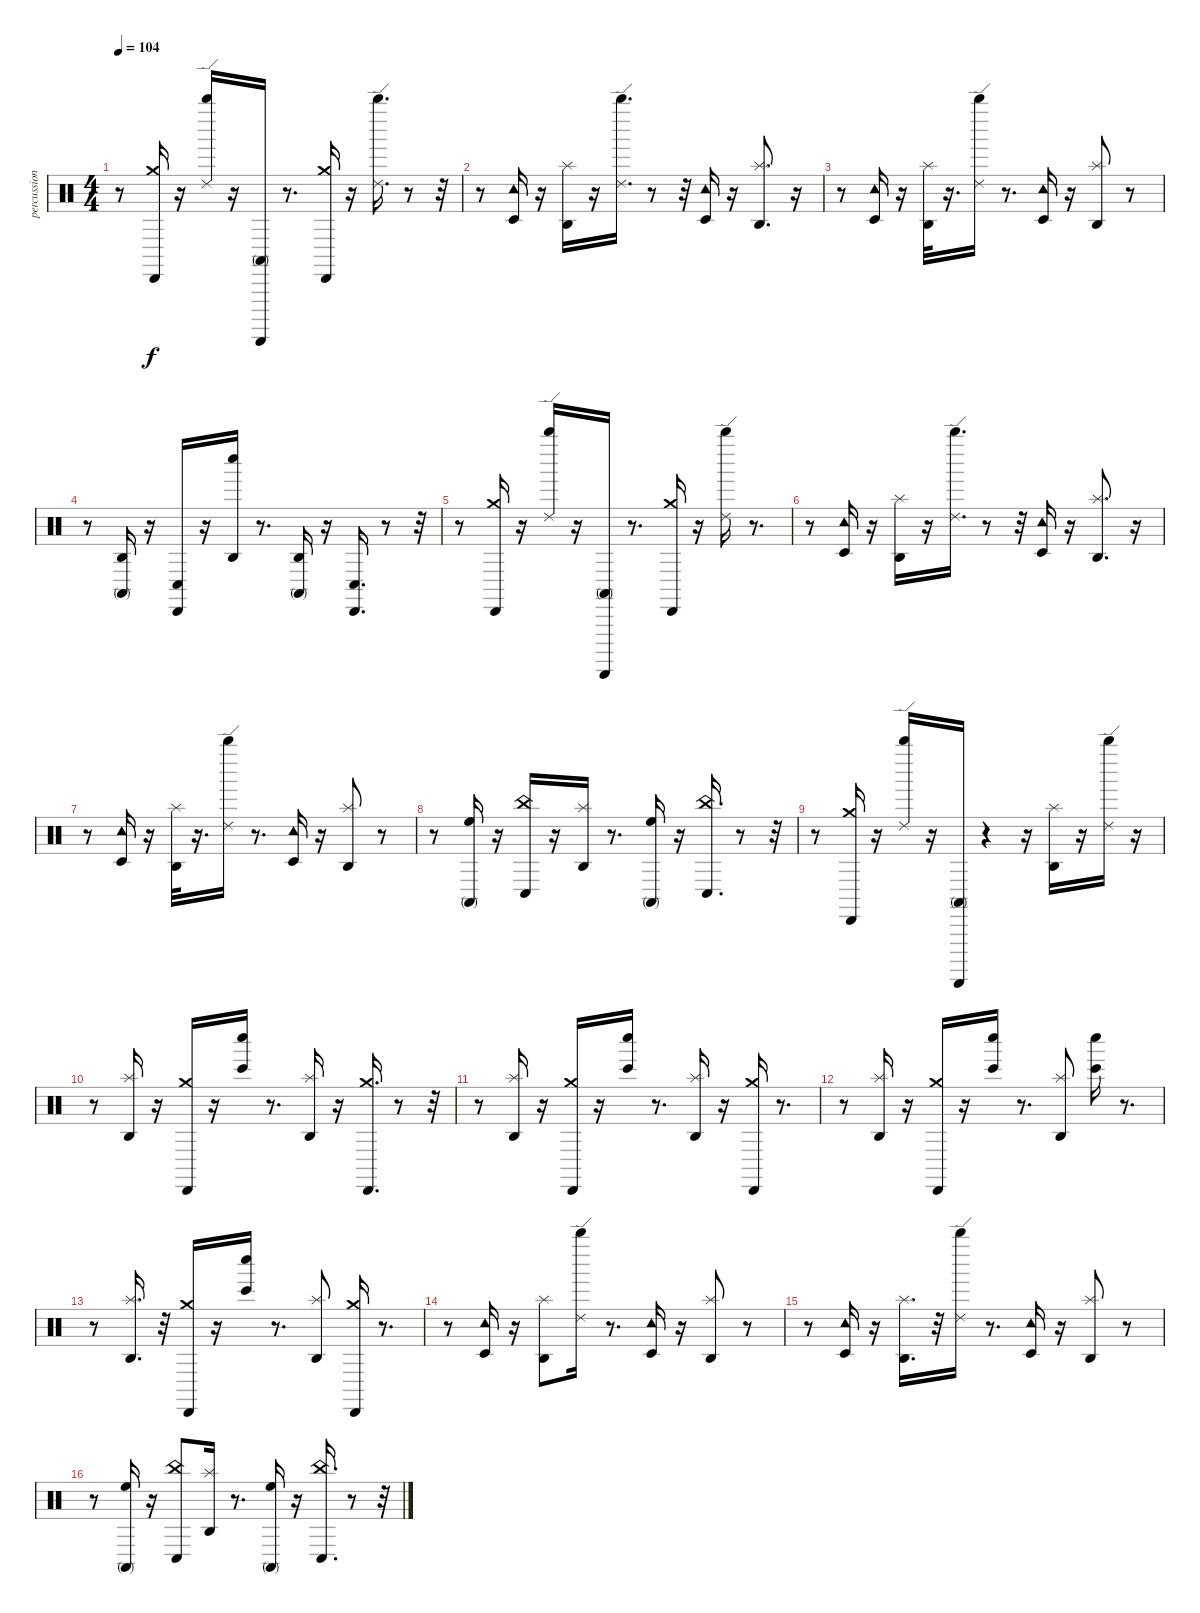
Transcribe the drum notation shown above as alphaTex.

\track ("percussion" "percussion") {instrument percussion}
\staff {score}
\articulation defaults
\ts (4 4)
\tempo 104
\clef neutral
\ks c
r.8{dy f} ("Cabasa (hit)" "Crash medium (hit)").16 r.16 ("Whistle high (hit)" "Ride (edge) 2").16 r.16 ("Guiro (scrap-return)" "Conga high (mute)").16 r.8{d} ("Crash medium (hit)" "Cabasa (hit)").16 r.16 ("Ride (edge) 2" "Whistle high (hit)").16{d} r.8 r.32 |
r.8 ("Timbale low (hit)" "Tambourine (hit)").16 r.16 ("Agogo high (hit)" "Splash (hit)").16 r.16 ("Whistle high (hit)" "Ride (edge) 2").16{d} r.8 r.32 ("Timbale low (hit)" "Tambourine (hit)").16 r.16 ("Agogo high (hit)" "Splash (hit)").8{d} r.16 |
r.8 ("Timbale low (hit)" "Tambourine (hit)").16 r.16 ("Agogo high (hit)" "Splash (hit)").32 r.16{d} ("Whistle high (hit)" "Ride (edge) 2").16 r.8{d} ("Timbale low (hit)" "Tambourine (hit)").16 r.16 ("Agogo high (hit)" "Splash (hit)").8 r.8 |
r.8 ("Conga high (mute)" "Agogo high (hit)").16 r.16 ("Conga low (hit)" "Cabasa (hit)").16 r.16 ("Agogo high (hit)" "Whistle low (hit)").16 r.8{d} ("Conga high (mute)" "Agogo high (hit)").16 r.16 ("Conga low (hit)" "Cabasa (hit)").16{d} r.8 r.32 |
r.8 ("Cabasa (hit)" "Crash medium (hit)").16 r.16 ("Whistle high (hit)" "Ride (edge) 2").16 r.16 ("Guiro (scrap-return)" "Conga high (mute)").16 r.8{d} ("Cabasa (hit)" "Crash medium (hit)").16 r.16 ("Whistle high (hit)" "Ride (edge) 2").16 r.8{d} |
r.8 ("Timbale low (hit)" "Tambourine (hit)").16 r.16 ("Agogo high (hit)" "Splash (hit)").16 r.16 ("Whistle high (hit)" "Ride (edge) 2").16{d} r.8 r.32 ("Timbale low (hit)" "Tambourine (hit)").16 r.16 ("Agogo high (hit)" "Splash (hit)").8{d} r.16 |
r.8 ("Timbale low (hit)" "Tambourine (hit)").16 r.16 ("Agogo high (hit)" "Splash (hit)").32 r.16{d} ("Whistle high (hit)" "Ride (edge) 2").16 r.8{d} ("Timbale low (hit)" "Tambourine (hit)").16 r.16 ("Agogo high (hit)" "Splash (hit)").8 r.8 |
r.8 ("Conga high (mute)" "High Floor Tom (hit)").16 r.16 ("Conga low (hit)" "China (hit)").16 r.16 ("Agogo high (hit)" "Splash (hit)").16 r.8{d} ("Conga high (mute)" "High Floor Tom (hit)").16 r.16 ("Conga low (hit)" "China (hit)").16{d} r.8 r.32 |
r.8 ("Cabasa (hit)" "Crash medium (hit)").16 r.16 ("Whistle high (hit)" "Ride (edge) 2").16 r.16 ("Guiro (scrap-return)" "Conga high (mute)").16 r.4 r.16 ("Agogo high (hit)" "Splash (hit)").16 r.16 ("Ride (edge) 2" "Whistle high (hit)").16 r.16 |
r.8 ("Agogo high (hit)" "Splash (hit)").16 r.16 ("Cabasa (hit)" "Crash medium (hit)").16 r.16 ("Whistle low (hit)" "Bongo High (hit)").16 r.8{d} ("Agogo high (hit)" "Splash (hit)").16 r.16 ("Cabasa (hit)" "Crash medium (hit)").16{d} r.8 r.32 |
r.8 ("Agogo high (hit)" "Splash (hit)").16 r.16 ("Cabasa (hit)" "Crash medium (hit)").16 r.16 ("Whistle low (hit)" "Bongo High (hit)").16 r.8{d} ("Agogo high (hit)" "Splash (hit)").16 r.16 ("Cabasa (hit)" "Crash medium (hit)").16 r.8{d} |
r.8 ("Agogo high (hit)" "Splash (hit)").16 r.16 ("Cabasa (hit)" "Crash medium (hit)").16 r.16 ("Whistle low (hit)" "Bongo High (hit)").16 r.8{d} ("Agogo high (hit)" "Splash (hit)").8 ("Bongo High (hit)" "Whistle low (hit)").16 r.8{d} |
r.8 ("Agogo high (hit)" "Splash (hit)").16{d} r.32 ("Cabasa (hit)" "Crash medium (hit)").16 r.16 ("Whistle low (hit)" "Bongo High (hit)").16 r.8{d} ("Agogo high (hit)" "Splash (hit)").8 ("Cabasa (hit)" "Crash medium (hit)").16 r.8{d} |
r.8 ("Timbale low (hit)" "Tambourine (hit)").16 r.16 ("Agogo high (hit)" "Splash (hit)").8 ("Whistle high (hit)" "Ride (edge) 2").16 r.8{d} ("Timbale low (hit)" "Tambourine (hit)").16 r.16 ("Agogo high (hit)" "Splash (hit)").8 r.8 |
r.8 ("Timbale low (hit)" "Tambourine (hit)").16 r.16 ("Agogo high (hit)" "Splash (hit)").16{d} r.32 ("Whistle high (hit)" "Ride (edge) 2").16 r.8{d} ("Timbale low (hit)" "Tambourine (hit)").16 r.16 ("Agogo high (hit)" "Splash (hit)").8 r.8 |
r.8 ("Conga high (mute)" "High Floor Tom (hit)").16 r.16 ("Conga low (hit)" "China (hit)").8 ("Agogo high (hit)" "Splash (hit)").16 r.8{d} ("Conga high (mute)" "High Floor Tom (hit)").16 r.16 ("Conga low (hit)" "China (hit)").16{d} r.8 r.32
